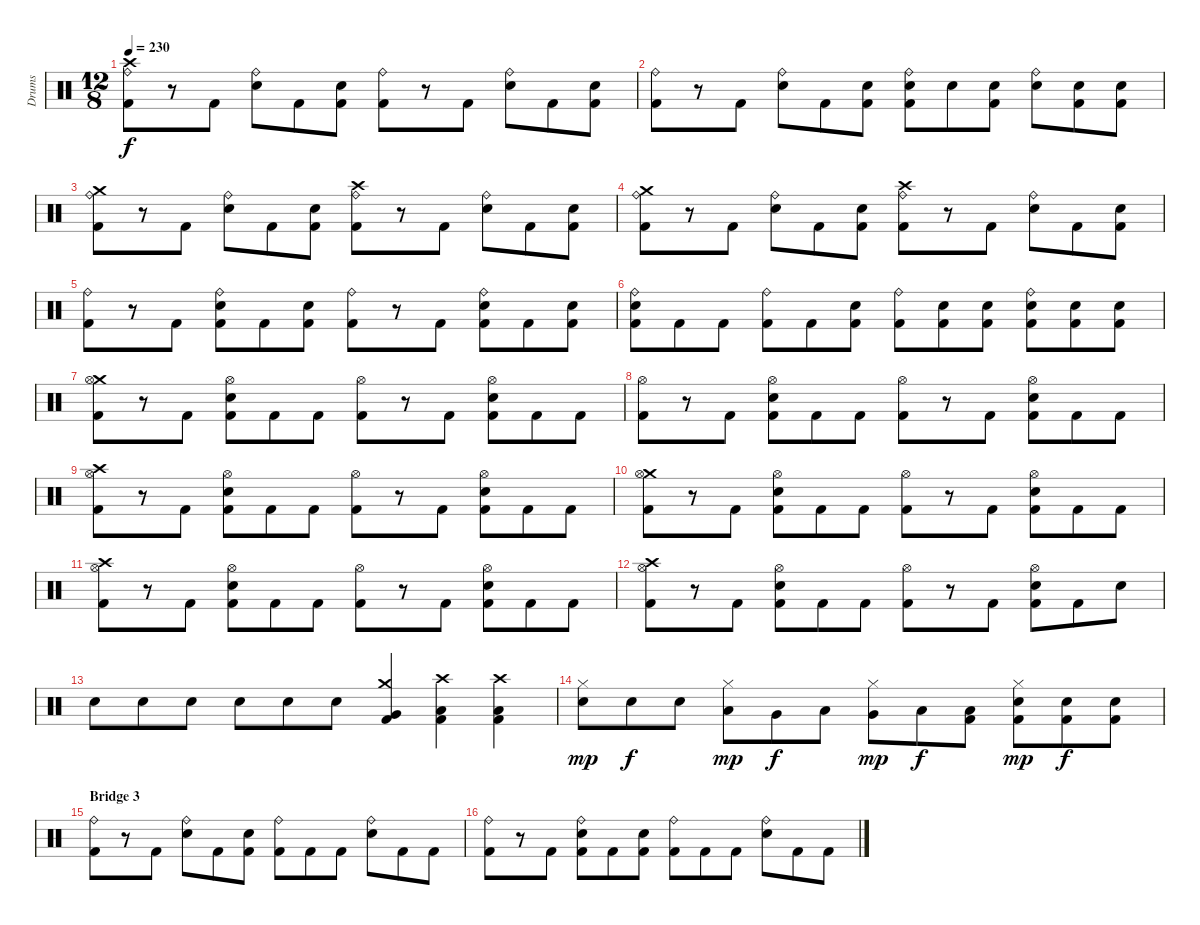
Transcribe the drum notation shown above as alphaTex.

\track ("Drums" "Drums") {instrument percussion}
\staff {score}
\articulation defaults
\ts (12 8)
\tempo 230
\clef neutral
\ks c
("Crash high (hit)" "Ride (bell)" "Kick (hit) 2").8{dy f} r.8 "Kick (hit) 2".8 ("Ride (bell)" "Snare (hit) 2").8 "Kick (hit) 2".8 ("Snare (hit) 2" "Kick (hit) 2").8 ("Ride (bell)" "Kick (hit) 2").8 r.8 "Kick (hit) 2".8 ("Ride (bell)" "Snare (hit) 2").8 "Kick (hit) 2".8 ("Snare (hit) 2" "Kick (hit) 2").8 |
("Ride (bell)" "Kick (hit) 2").8 r.8 "Kick (hit) 2".8 ("Ride (bell)" "Snare (hit) 2").8 "Kick (hit) 2".8 ("Snare (hit) 2" "Kick (hit) 2").8 ("Ride (bell)" "Snare (hit) 2" "Kick (hit) 2").8 "Snare (hit) 2".8 ("Snare (hit) 2" "Kick (hit) 2").8 ("Ride (bell)" "Snare (hit) 2").8 ("Snare (hit) 2" "Kick (hit) 2").8 ("Snare (hit) 2" "Kick (hit) 2").8 |
("Crash medium (hit)" "Ride (bell)" "Kick (hit) 2").8 r.8 "Kick (hit) 2".8 ("Ride (bell)" "Snare (hit) 2").8 "Kick (hit) 2".8 ("Snare (hit) 2" "Kick (hit) 2").8 ("Crash high (hit)" "Ride (bell)" "Kick (hit) 2").8 r.8 "Kick (hit) 2".8 ("Ride (bell)" "Snare (hit) 2").8 "Kick (hit) 2".8 ("Snare (hit) 2" "Kick (hit) 2").8 |
("Crash medium (hit)" "Ride (bell)" "Kick (hit) 2").8 r.8 "Kick (hit) 2".8 ("Ride (bell)" "Snare (hit) 2").8 "Kick (hit) 2".8 ("Snare (hit) 2" "Kick (hit) 2").8 ("Crash high (hit)" "Ride (bell)" "Kick (hit) 2").8 r.8 "Kick (hit) 2".8 ("Ride (bell)" "Snare (hit) 2").8 "Kick (hit) 2".8 ("Snare (hit) 2" "Kick (hit) 2").8 |
("Ride (bell)" "Kick (hit) 2").8 r.8 "Kick (hit) 2".8 ("Ride (bell)" "Snare (hit) 2" "Kick (hit) 2").8 "Kick (hit) 2".8 ("Snare (hit) 2" "Kick (hit) 2").8 ("Ride (bell)" "Kick (hit) 2").8 r.8 "Kick (hit) 2".8 ("Ride (bell)" "Snare (hit) 2" "Kick (hit) 2").8 "Kick (hit) 2".8 ("Snare (hit) 2" "Kick (hit) 2").8 |
("Ride (bell)" "Snare (hit) 2" "Kick (hit) 2").8 "Kick (hit) 2".8 "Kick (hit) 2".8 ("Ride (bell)" "Kick (hit) 2").8 "Kick (hit) 2".8 ("Snare (hit) 2" "Kick (hit) 2").8 ("Ride (bell)" "Kick (hit) 2").8 ("Snare (hit) 2" "Kick (hit) 2").8 ("Snare (hit) 2" "Kick (hit) 2").8 ("Ride (bell)" "Snare (hit) 2" "Kick (hit) 2").8 ("Snare (hit) 2" "Kick (hit) 2").8 ("Snare (hit) 2" "Kick (hit) 2").8 |
("Crash medium (hit)" "Hi-Hat (open)" "Kick (hit) 2").8 r.8 "Kick (hit) 2".8 ("Hi-Hat (open)" "Snare (hit) 2" "Kick (hit) 2").8 "Kick (hit) 2".8 "Kick (hit) 2".8 ("Hi-Hat (open)" "Kick (hit) 2").8 r.8 "Kick (hit) 2".8 ("Hi-Hat (open)" "Snare (hit) 2" "Kick (hit) 2").8 "Kick (hit) 2".8 "Kick (hit) 2".8 |
("Hi-Hat (open)" "Kick (hit) 2").8 r.8 "Kick (hit) 2".8 ("Hi-Hat (open)" "Snare (hit) 2" "Kick (hit) 2").8 "Kick (hit) 2".8 "Kick (hit) 2".8 ("Hi-Hat (open)" "Kick (hit) 2").8 r.8 "Kick (hit) 2".8 ("Hi-Hat (open)" "Snare (hit) 2" "Kick (hit) 2").8 "Kick (hit) 2".8 "Kick (hit) 2".8 |
("Crash high (hit)" "Hi-Hat (open)" "Kick (hit) 2").8 r.8 "Kick (hit) 2".8 ("Hi-Hat (open)" "Snare (hit) 2" "Kick (hit) 2").8 "Kick (hit) 2".8 "Kick (hit) 2".8 ("Hi-Hat (open)" "Kick (hit) 2").8 r.8 "Kick (hit) 2".8 ("Hi-Hat (open)" "Snare (hit) 2" "Kick (hit) 2").8 "Kick (hit) 2".8 "Kick (hit) 2".8 |
("Crash medium (hit)" "Hi-Hat (open)" "Kick (hit) 2").8 r.8 "Kick (hit) 2".8 ("Hi-Hat (open)" "Snare (hit) 2" "Kick (hit) 2").8 "Kick (hit) 2".8 "Kick (hit) 2".8 ("Hi-Hat (open)" "Kick (hit) 2").8 r.8 "Kick (hit) 2".8 ("Hi-Hat (open)" "Snare (hit) 2" "Kick (hit) 2").8 "Kick (hit) 2".8 "Kick (hit) 2".8 |
("Crash high (hit)" "Hi-Hat (open)" "Kick (hit) 2").8 r.8 "Kick (hit) 2".8 ("Hi-Hat (open)" "Snare (hit) 2" "Kick (hit) 2").8 "Kick (hit) 2".8 "Kick (hit) 2".8 ("Hi-Hat (open)" "Kick (hit) 2").8 r.8 "Kick (hit) 2".8 ("Hi-Hat (open)" "Snare (hit) 2" "Kick (hit) 2").8 "Kick (hit) 2".8 "Kick (hit) 2".8 |
("Crash high (hit)" "Hi-Hat (open)" "Kick (hit) 2").8 r.8 "Kick (hit) 2".8 ("Hi-Hat (open)" "Snare (hit) 2" "Kick (hit) 2").8 "Kick (hit) 2".8 "Kick (hit) 2".8 ("Hi-Hat (open)" "Kick (hit) 2").8 r.8 "Kick (hit) 2".8 ("Hi-Hat (open)" "Snare (hit) 2" "Kick (hit) 2").8 "Kick (hit) 2".8 "Snare (hit) 2".8 |
"Snare (hit) 2".8 "Snare (hit) 2".8 "Snare (hit) 2".8 "Snare (hit) 2".8 "Snare (hit) 2".8 "Snare (hit) 2".8 ("Crash medium (hit)" "Very Low Tom (hit)" "Kick (hit) 2").4 ("Crash high (hit)" "Low Floor Tom (hit)" "Kick (hit) 2").4 ("Crash high (hit)" "Low Floor Tom (hit)" "Kick (hit) 2").4 |
("Hi-Hat (closed)" "Snare (hit) 2").8{dy mp} "Snare (hit) 2".8{dy f} "Snare (hit) 2".8 ("Hi-Hat (closed)" "Low Tom (hit)").8{dy mp} "Very Low Tom (hit)".8{dy f} "Low Floor Tom (hit)".8 ("Hi-Hat (closed)" "Very Low Tom (hit)").8{dy mp} "Low Floor Tom (hit)".8{dy f} ("Low Tom (hit)" "Kick (hit) 2").8 ("Hi-Hat (closed)" "Snare (hit) 2" "Kick (hit) 2").8{dy mp} ("Snare (hit) 2" "Kick (hit) 2").8{dy f} ("Snare (hit) 2" "Kick (hit) 2").8 |
\section ("" "Bridge 3")
("Ride (bell)" "Kick (hit) 2").8 r.8 "Kick (hit) 2".8 ("Ride (bell)" "Snare (hit) 2").8 "Kick (hit) 2".8 ("Snare (hit) 2" "Kick (hit) 2").8 ("Ride (bell)" "Kick (hit) 2").8 "Kick (hit) 2".8 "Kick (hit) 2".8 ("Ride (bell)" "Snare (hit) 2").8 "Kick (hit) 2".8 "Kick (hit) 2".8 |
("Ride (bell)" "Kick (hit) 2").8 r.8 "Kick (hit) 2".8 ("Ride (bell)" "Snare (hit) 2" "Kick (hit) 2").8 "Kick (hit) 2".8 ("Snare (hit) 2" "Kick (hit) 2").8 ("Ride (bell)" "Kick (hit) 2").8 "Kick (hit) 2".8 "Kick (hit) 2".8 ("Ride (bell)" "Snare (hit) 2").8 "Kick (hit) 2".8 "Kick (hit) 2".8
